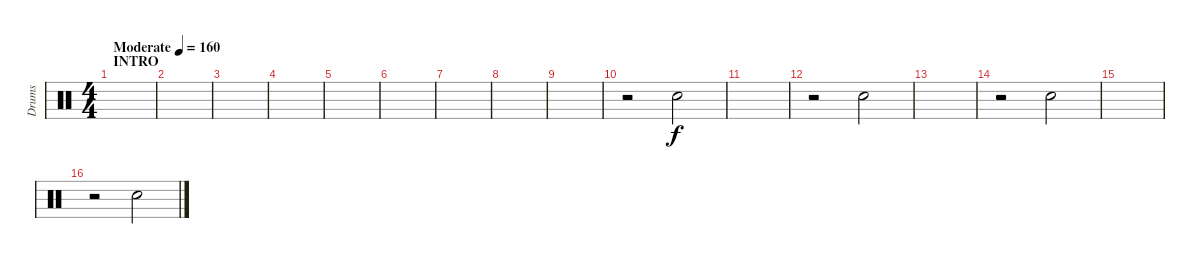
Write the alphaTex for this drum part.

\track ("Drums" "Drums") {instrument percussion}
\staff {score}
\articulation defaults
\ts (4 4)
\section ("" "INTRO")
\tempo (160 "Moderate")
\clef neutral
\ks c
|
|
|
|
|
|
|
|
|
r.2 "Snare (hit) 2".2 |
|
r.2 "Snare (hit) 2".2 |
|
r.2 "Snare (hit) 2".2 |
|
r.2 "Snare (hit) 2".2
